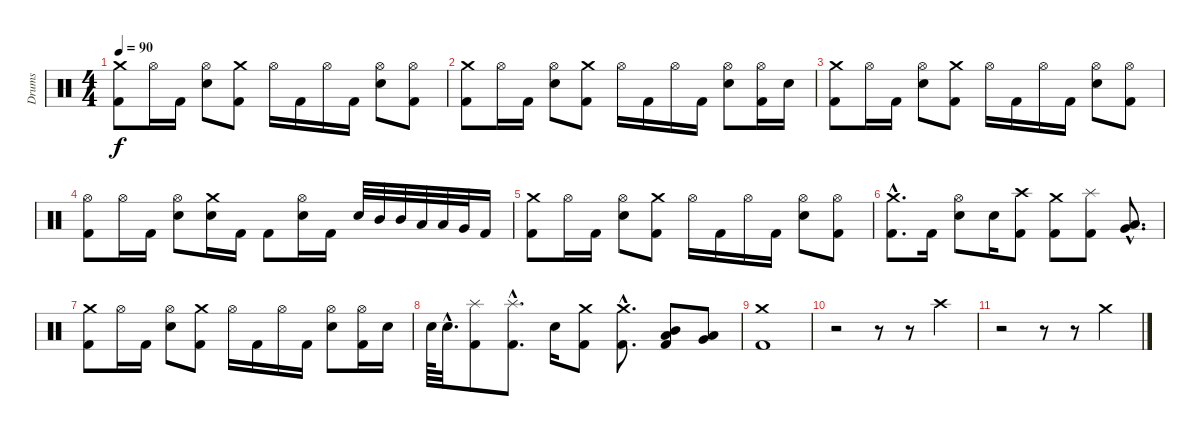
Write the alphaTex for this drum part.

\track ("Drums" "Drums") {instrument percussion}
\staff {score}
\articulation defaults
\ts (4 4)
\tempo 90
\clef neutral
\ks c
("Crash medium (hit)" "Kick (hit) 2").8{dy f} "Hi-Hat (open)".16 "Kick (hit) 2".16 ("Hi-Hat (open)" "Snare (hit) 2").8 ("Crash medium (hit)" "Kick (hit) 2").8 "Hi-Hat (open)".16 "Kick (hit) 2".16 "Hi-Hat (open)".16 "Kick (hit) 2".16 ("Hi-Hat (open)" "Snare (hit) 2").8 ("Hi-Hat (open)" "Kick (hit) 2").8 |
("Crash medium (hit)" "Kick (hit) 2").8 "Hi-Hat (open)".16 "Kick (hit) 2".16 ("Hi-Hat (open)" "Snare (hit) 2").8 ("Crash medium (hit)" "Kick (hit) 2").8 "Hi-Hat (open)".16 "Kick (hit) 2".16 "Hi-Hat (open)".16 "Kick (hit) 2".16 ("Hi-Hat (open)" "Snare (hit) 2").8 ("Hi-Hat (open)" "Kick (hit) 2").16 "Snare (hit) 2".16 |
("Crash medium (hit)" "Kick (hit) 2").8 "Hi-Hat (open)".16 "Kick (hit) 2".16 ("Hi-Hat (open)" "Snare (hit) 2").8 ("Crash medium (hit)" "Kick (hit) 2").8 "Hi-Hat (open)".16 "Kick (hit) 2".16 "Hi-Hat (open)".16 "Kick (hit) 2".16 ("Hi-Hat (open)" "Snare (hit) 2").8 ("Hi-Hat (open)" "Kick (hit) 2").8 |
("Hi-Hat (open)" "Kick (hit) 2").8 "Hi-Hat (open)".16 "Kick (hit) 2".16 ("Hi-Hat (open)" "Snare (hit) 2").8 ("Crash medium (hit)" "Snare (hit) 2").16 "Kick (hit) 2".16 "Kick (hit) 2".8 ("Hi-Hat (open)" "Snare (hit) 2").16 "Kick (hit) 2".16 "Snare (hit) 2".32 "Mid Tom (hit)".32 "Mid Tom (hit)".32 "Low Tom (hit)".32 "Low Tom (hit)".32 "Very Low Tom (hit)".32 "Kick (hit) 2".16 |
("Crash medium (hit)" "Kick (hit) 2").8 "Hi-Hat (open)".16 "Kick (hit) 2".16 ("Hi-Hat (open)" "Snare (hit) 2").8 ("Crash medium (hit)" "Kick (hit) 2").8 "Hi-Hat (open)".16 "Kick (hit) 2".16 "Hi-Hat (open)".16 "Kick (hit) 2".16 ("Hi-Hat (open)" "Snare (hit) 2").8 ("Hi-Hat (open)" "Kick (hit) 2").8 |
("Crash medium (hit)"{hac} "Kick (hit) 2"{hac}).8{d} "Kick (hit) 2".16 ("Hi-Hat (open)" "Snare (hit) 2").8 "Snare (hit) 2".16 ("Crash high (hit)" "Kick (hit) 2").8 ("Crash medium (hit)" "Kick (hit) 2").8 ("Splash (hit)" "Kick (hit) 2").8 ("Low Tom (hit)"{hac} "Very Low Tom (hit)"{hac}).8{d} |
("Crash medium (hit)" "Kick (hit) 2").8 "Hi-Hat (open)".16 "Kick (hit) 2".16 ("Hi-Hat (open)" "Snare (hit) 2").8 ("Crash medium (hit)" "Kick (hit) 2").8 "Hi-Hat (open)".16 "Kick (hit) 2".16 "Hi-Hat (open)".16 "Kick (hit) 2".16 ("Hi-Hat (open)" "Snare (hit) 2").8 ("Hi-Hat (open)" "Kick (hit) 2").16 "Snare (hit) 2".16 |
"Snare (hit) 2".64 "Snare (hit) 2"{hac}.32{d} ("Splash (hit)" "Kick (hit) 2").8 ("Splash (hit)"{hac} "Kick (hit) 2"{hac}).8{d} "Snare (hit) 2".16 ("Crash medium (hit)" "Kick (hit) 2").8 ("Crash medium (hit)"{hac} "Kick (hit) 2"{hac}).8{d} ("Mid Tom (hit)" "Low Tom (hit)" "Kick (hit) 2").8 ("Low Tom (hit)" "Very Low Tom (hit)").8 |
("Crash medium (hit)" "Kick (hit) 2").1{volume 0} |
r.2 r.8 r.8{volume 16} "Crash high (hit)".4 |
r.2{volume 0} r.8 r.8{volume 16} "Crash medium (hit)".4
